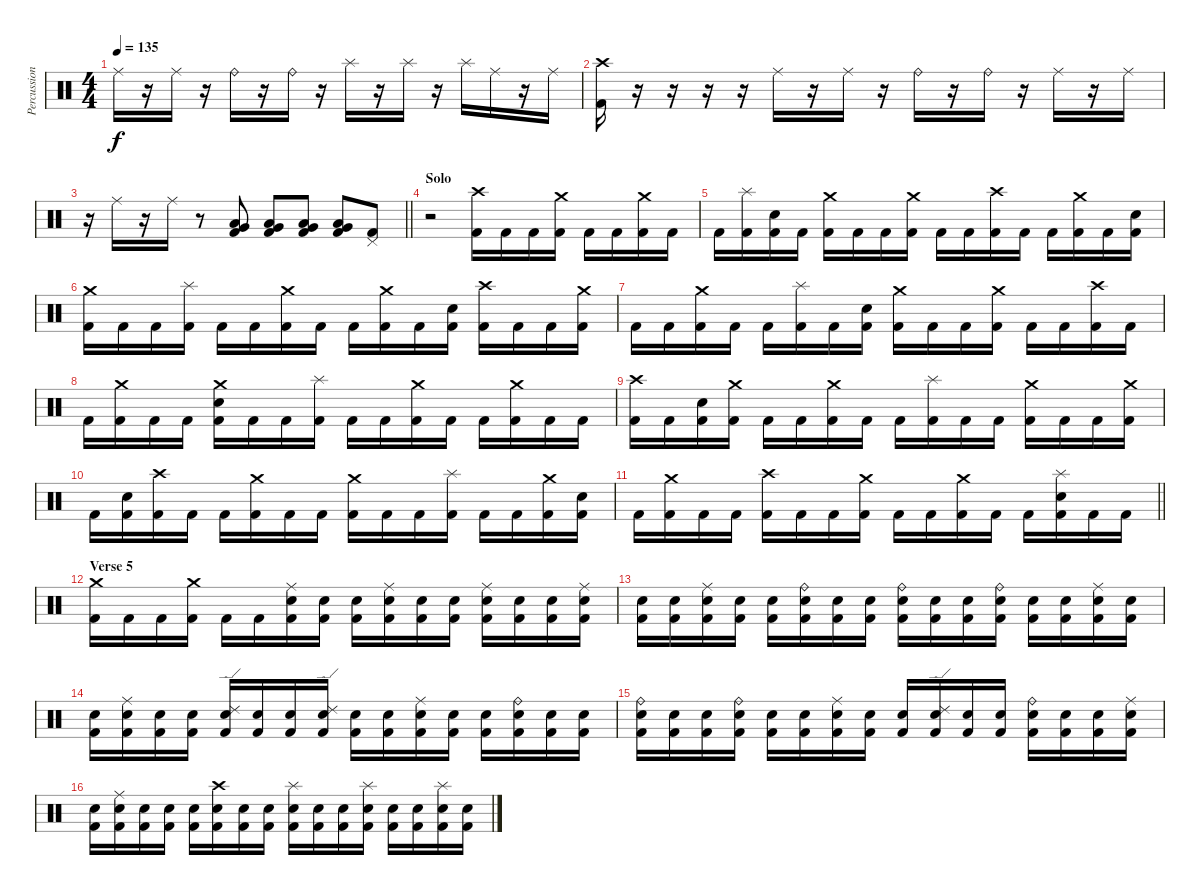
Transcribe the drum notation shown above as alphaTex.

\track ("Percussion" "Percussion") {instrument percussion}
\staff {score}
\articulation defaults
\ts (4 4)
\tempo 135
\clef neutral
\ks c "Ride (middle)".16{dy f}
r.16 "Ride (middle)".16 r.16 "Ride (bell)".16 r.16 "Ride (bell)".16 r.16 "Splash (hit)".16 r.16 "Splash (hit)".16 r.16 "Splash (hit)".16 "Ride (middle)".16 r.16 "Ride (middle)".16 |
("Crash high (hit)" "Kick (hit) 2").16 r.16 r.16 r.16 r.16 "Ride (middle)".16 r.16 "Ride (middle)".16 r.16 "Ride (bell)".16 r.16 "Ride (bell)".16 r.16 "Ride (middle)".16 r.16 "Ride (middle)".16 |
\barLineRight lightlight
r.16 "Ride (middle)".16 r.16 "Ride (middle)".16 r.8 ("Very Low Tom (hit)" "Low Floor Tom (hit)" "Kick (hit) 2").8 ("Very Low Tom (hit)" "Low Floor Tom (hit)" "Kick (hit) 2").8 ("Very Low Tom (hit)" "Low Floor Tom (hit)" "Kick (hit) 2").8 ("Very Low Tom (hit)" "Low Floor Tom (hit)" "Kick (hit) 2").8 ("Pedal Hi-Hat (hit)" "Kick (hit) 2").8 |
\section ("" "Solo")
r.2 ("Crash high (hit)" "Kick (hit) 2").16 "Kick (hit) 2".16 "Kick (hit) 2".16 ("Crash medium (hit)" "Kick (hit) 2").16 "Kick (hit) 2".16 "Kick (hit) 2".16 ("Crash medium (hit)" "Kick (hit) 2").16 "Kick (hit) 2".16 |
"Kick (hit) 2".16 ("Splash (hit)" "Kick (hit) 2").16 ("Electric Snare (hit)" "Kick (hit) 2").16 "Kick (hit) 2".16 ("Crash medium (hit)" "Kick (hit) 2").16 "Kick (hit) 2".16 "Kick (hit) 2".16 ("Crash medium (hit)" "Kick (hit) 2").16 "Kick (hit) 2".16 "Kick (hit) 2".16 ("Crash high (hit)" "Kick (hit) 2").16 "Kick (hit) 2".16 "Kick (hit) 2".16 ("Crash medium (hit)" "Kick (hit) 2").16 "Kick (hit) 2".16 ("Electric Snare (hit)" "Kick (hit) 2").16 |
("Crash medium (hit)" "Kick (hit) 2").16 "Kick (hit) 2".16 "Kick (hit) 2".16 ("Splash (hit)" "Kick (hit) 2").16 "Kick (hit) 2".16 "Kick (hit) 2".16 ("Crash medium (hit)" "Kick (hit) 2").16 "Kick (hit) 2".16 "Kick (hit) 2".16 ("Crash medium (hit)" "Kick (hit) 2").16 "Kick (hit) 2".16 ("Electric Snare (hit)" "Kick (hit) 2").16 ("Crash high (hit)" "Kick (hit) 2").16 "Kick (hit) 2".16 "Kick (hit) 2".16 ("Crash medium (hit)" "Kick (hit) 2").16 |
"Kick (hit) 2".16 "Kick (hit) 2".16 ("Crash medium (hit)" "Kick (hit) 2").16 "Kick (hit) 2".16 "Kick (hit) 2".16 ("Splash (hit)" "Kick (hit) 2").16 "Kick (hit) 2".16 ("Electric Snare (hit)" "Kick (hit) 2").16 ("Crash medium (hit)" "Kick (hit) 2").16 "Kick (hit) 2".16 "Kick (hit) 2".16 ("Crash medium (hit)" "Kick (hit) 2").16 "Kick (hit) 2".16 "Kick (hit) 2".16 ("Crash high (hit)" "Kick (hit) 2").16 "Kick (hit) 2".16 |
"Kick (hit) 2".16 ("Crash medium (hit)" "Kick (hit) 2").16 "Kick (hit) 2".16 "Kick (hit) 2".16 ("Crash medium (hit)" "Electric Snare (hit)" "Kick (hit) 2").16 "Kick (hit) 2".16 "Kick (hit) 2".16 ("Splash (hit)" "Kick (hit) 2").16 "Kick (hit) 2".16 "Kick (hit) 2".16 ("Crash medium (hit)" "Kick (hit) 2").16 "Kick (hit) 2".16 "Kick (hit) 2".16 ("Crash medium (hit)" "Kick (hit) 2").16 "Kick (hit) 2".16 "Kick (hit) 2".16 |
("Crash high (hit)" "Kick (hit) 2").16 "Kick (hit) 2".16 ("Electric Snare (hit)" "Kick (hit) 2").16 ("Crash medium (hit)" "Kick (hit) 2").16 "Kick (hit) 2".16 "Kick (hit) 2".16 ("Crash medium (hit)" "Kick (hit) 2").16 "Kick (hit) 2".16 "Kick (hit) 2".16 ("Splash (hit)" "Kick (hit) 2").16 "Kick (hit) 2".16 "Kick (hit) 2".16 ("Crash medium (hit)" "Kick (hit) 2").16 "Kick (hit) 2".16 "Kick (hit) 2".16 ("Crash medium (hit)" "Kick (hit) 2").16 |
"Kick (hit) 2".16 ("Electric Snare (hit)" "Kick (hit) 2").16 ("Crash high (hit)" "Kick (hit) 2").16 "Kick (hit) 2".16 "Kick (hit) 2".16 ("Crash medium (hit)" "Kick (hit) 2").16 "Kick (hit) 2".16 "Kick (hit) 2".16 ("Crash medium (hit)" "Kick (hit) 2").16 "Kick (hit) 2".16 "Kick (hit) 2".16 ("Splash (hit)" "Kick (hit) 2").16 "Kick (hit) 2".16 "Kick (hit) 2".16 ("Crash medium (hit)" "Kick (hit) 2").16 ("Electric Snare (hit)" "Kick (hit) 2").16 |
\barLineRight lightlight "Kick (hit) 2".16
("Crash medium (hit)" "Kick (hit) 2").16 "Kick (hit) 2".16 "Kick (hit) 2".16 ("Crash high (hit)" "Kick (hit) 2").16 "Kick (hit) 2".16 "Kick (hit) 2".16 ("Crash medium (hit)" "Kick (hit) 2").16 "Kick (hit) 2".16 "Kick (hit) 2".16 ("Crash medium (hit)" "Kick (hit) 2").16 "Kick (hit) 2".16 "Kick (hit) 2".16 ("Splash (hit)" "Electric Snare (hit)" "Kick (hit) 2").16 "Kick (hit) 2".16 "Kick (hit) 2".16 |
\section ("" "Verse 5")
("Crash medium (hit)" "Kick (hit) 2").16 "Kick (hit) 2".16 "Kick (hit) 2".16 ("Crash medium (hit)" "Kick (hit) 2").16 "Kick (hit) 2".16 "Kick (hit) 2".16 ("Ride (middle)" "Electric Snare (hit)" "Kick (hit) 2").16 ("Electric Snare (hit)" "Kick (hit) 2").16 ("Electric Snare (hit)" "Kick (hit) 2").16 ("Ride (middle)" "Electric Snare (hit)" "Kick (hit) 2").16 ("Electric Snare (hit)" "Kick (hit) 2").16 ("Electric Snare (hit)" "Kick (hit) 2").16 ("Ride (middle)" "Electric Snare (hit)" "Kick (hit) 2").16 ("Electric Snare (hit)" "Kick (hit) 2").16 ("Electric Snare (hit)" "Kick (hit) 2").16 ("Ride (middle)" "Electric Snare (hit)" "Kick (hit) 2").16 |
("Electric Snare (hit)" "Kick (hit) 2").16 ("Electric Snare (hit)" "Kick (hit) 2").16 ("Ride (middle)" "Electric Snare (hit)" "Kick (hit) 2").16 ("Electric Snare (hit)" "Kick (hit) 2").16 ("Electric Snare (hit)" "Kick (hit) 2").16 ("Ride (bell)" "Electric Snare (hit)" "Kick (hit) 2").16 ("Electric Snare (hit)" "Kick (hit) 2").16 ("Electric Snare (hit)" "Kick (hit) 2").16 ("Ride (bell)" "Electric Snare (hit)" "Kick (hit) 2").16 ("Electric Snare (hit)" "Kick (hit) 2").16 ("Electric Snare (hit)" "Kick (hit) 2").16 ("Ride (bell)" "Electric Snare (hit)" "Kick (hit) 2").16 ("Electric Snare (hit)" "Kick (hit) 2").16 ("Electric Snare (hit)" "Kick (hit) 2").16 ("Ride (middle)" "Electric Snare (hit)" "Kick (hit) 2").16 ("Electric Snare (hit)" "Kick (hit) 2").16 |
("Electric Snare (hit)" "Kick (hit) 2").16 ("Ride (middle)" "Electric Snare (hit)" "Kick (hit) 2").16 ("Electric Snare (hit)" "Kick (hit) 2").16 ("Electric Snare (hit)" "Kick (hit) 2").16 ("Ride (edge) 2" "Electric Snare (hit)" "Kick (hit) 2").16 ("Electric Snare (hit)" "Kick (hit) 2").16 ("Electric Snare (hit)" "Kick (hit) 2").16 ("Ride (edge) 2" "Electric Snare (hit)" "Kick (hit) 2").16 ("Electric Snare (hit)" "Kick (hit) 2").16 ("Electric Snare (hit)" "Kick (hit) 2").16 ("Ride (middle)" "Electric Snare (hit)" "Kick (hit) 2").16 ("Electric Snare (hit)" "Kick (hit) 2").16 ("Electric Snare (hit)" "Kick (hit) 2").16 ("Ride (bell)" "Electric Snare (hit)" "Kick (hit) 2").16 ("Electric Snare (hit)" "Kick (hit) 2").16 ("Electric Snare (hit)" "Kick (hit) 2").16 |
("Ride (bell)" "Electric Snare (hit)" "Kick (hit) 2").16 ("Electric Snare (hit)" "Kick (hit) 2").16 ("Electric Snare (hit)" "Kick (hit) 2").16 ("Ride (bell)" "Electric Snare (hit)" "Kick (hit) 2").16 ("Electric Snare (hit)" "Kick (hit) 2").16 ("Electric Snare (hit)" "Kick (hit) 2").16 ("Ride (middle)" "Electric Snare (hit)" "Kick (hit) 2").16 ("Electric Snare (hit)" "Kick (hit) 2").16 ("Electric Snare (hit)" "Kick (hit) 2").16 ("Ride (edge) 2" "Electric Snare (hit)" "Kick (hit) 2").16 ("Electric Snare (hit)" "Kick (hit) 2").16 ("Electric Snare (hit)" "Kick (hit) 2").16 ("Ride (bell)" "Electric Snare (hit)" "Kick (hit) 2").16 ("Electric Snare (hit)" "Kick (hit) 2").16 ("Electric Snare (hit)" "Kick (hit) 2").16 ("Ride (middle)" "Electric Snare (hit)" "Kick (hit) 2").16 |
("Electric Snare (hit)" "Kick (hit) 2").16 ("Ride (middle)" "Electric Snare (hit)" "Kick (hit) 2").16 ("Electric Snare (hit)" "Kick (hit) 2").16 ("Electric Snare (hit)" "Kick (hit) 2").16 ("Electric Snare (hit)" "Kick (hit) 2").16 ("Crash high (hit)" "Electric Snare (hit)" "Kick (hit) 2").16 ("Electric Snare (hit)" "Kick (hit) 2").16 ("Electric Snare (hit)" "Kick (hit) 2").16 ("Splash (hit)" "Electric Snare (hit)" "Kick (hit) 2").16 ("Electric Snare (hit)" "Kick (hit) 2").16 ("Electric Snare (hit)" "Kick (hit) 2").16 ("Splash (hit)" "Electric Snare (hit)" "Kick (hit) 2").16 ("Electric Snare (hit)" "Kick (hit) 2").16 ("Electric Snare (hit)" "Kick (hit) 2").16 ("Splash (hit)" "Electric Snare (hit)" "Kick (hit) 2").16 ("Electric Snare (hit)" "Kick (hit) 2").16
